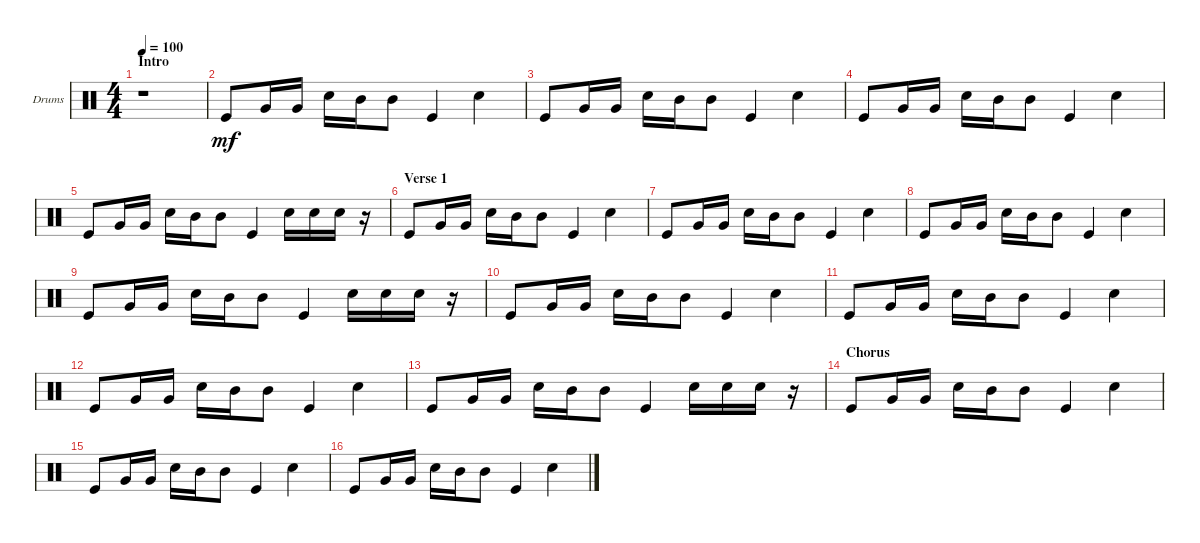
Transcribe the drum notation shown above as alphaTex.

\defaultSystemsLayout 4
\bracketExtendMode groupsimilarinstruments
\firstSystemTrackNameOrientation horizontal
\otherSystemsTrackNameOrientation horizontal
\track ("Dominic Howard" "Drums") {instrument percussion}
\staff {score}
\articulation defaults
\ts (4 4)
\section ("" "Intro")
\tempo 100
\clef neutral
\ks c
r.1{dy mf} |
"Kick (hit)".8 "Very Low Tom (hit)".16 "Very Low Tom (hit)".16 "Snare (hit) 2".16 "Mid Tom (hit)".16 "Mid Tom (hit)".8 "Kick (hit)".4 "Snare (hit) 2".4 |
"Kick (hit)".8 "Very Low Tom (hit)".16 "Very Low Tom (hit)".16 "Snare (hit) 2".16 "Mid Tom (hit)".16 "Mid Tom (hit)".8 "Kick (hit)".4 "Snare (hit) 2".4 |
"Kick (hit)".8 "Very Low Tom (hit)".16 "Very Low Tom (hit)".16 "Snare (hit) 2".16 "Mid Tom (hit)".16 "Mid Tom (hit)".8 "Kick (hit)".4 "Snare (hit) 2".4 |
"Kick (hit)".8 "Very Low Tom (hit)".16 "Very Low Tom (hit)".16 "Snare (hit) 2".16 "Mid Tom (hit)".16 "Mid Tom (hit)".8 "Kick (hit)".4 "Snare (hit) 2".16 "Snare (hit) 2".16 "Snare (hit) 2".16 r.16 |
\section ("" "Verse 1")
"Kick (hit)".8 "Very Low Tom (hit)".16 "Very Low Tom (hit)".16 "Snare (hit) 2".16 "Mid Tom (hit)".16 "Mid Tom (hit)".8 "Kick (hit)".4 "Snare (hit) 2".4 |
"Kick (hit)".8 "Very Low Tom (hit)".16 "Very Low Tom (hit)".16 "Snare (hit) 2".16 "Mid Tom (hit)".16 "Mid Tom (hit)".8 "Kick (hit)".4 "Snare (hit) 2".4 |
"Kick (hit)".8 "Very Low Tom (hit)".16 "Very Low Tom (hit)".16 "Snare (hit) 2".16 "Mid Tom (hit)".16 "Mid Tom (hit)".8 "Kick (hit)".4 "Snare (hit) 2".4 |
"Kick (hit)".8 "Very Low Tom (hit)".16 "Very Low Tom (hit)".16 "Snare (hit) 2".16 "Mid Tom (hit)".16 "Mid Tom (hit)".8 "Kick (hit)".4 "Snare (hit) 2".16 "Snare (hit) 2".16 "Snare (hit) 2".16 r.16 |
"Kick (hit)".8 "Very Low Tom (hit)".16 "Very Low Tom (hit)".16 "Snare (hit) 2".16 "Mid Tom (hit)".16 "Mid Tom (hit)".8 "Kick (hit)".4 "Snare (hit) 2".4 |
"Kick (hit)".8 "Very Low Tom (hit)".16 "Very Low Tom (hit)".16 "Snare (hit) 2".16 "Mid Tom (hit)".16 "Mid Tom (hit)".8 "Kick (hit)".4 "Snare (hit) 2".4 |
"Kick (hit)".8 "Very Low Tom (hit)".16 "Very Low Tom (hit)".16 "Snare (hit) 2".16 "Mid Tom (hit)".16 "Mid Tom (hit)".8 "Kick (hit)".4 "Snare (hit) 2".4 |
"Kick (hit)".8 "Very Low Tom (hit)".16 "Very Low Tom (hit)".16 "Snare (hit) 2".16 "Mid Tom (hit)".16 "Mid Tom (hit)".8 "Kick (hit)".4 "Snare (hit) 2".16 "Snare (hit) 2".16 "Snare (hit) 2".16 r.16 |
\section ("" "Chorus")
"Kick (hit)".8 "Very Low Tom (hit)".16 "Very Low Tom (hit)".16 "Snare (hit) 2".16 "Mid Tom (hit)".16 "Mid Tom (hit)".8 "Kick (hit)".4 "Snare (hit) 2".4 |
"Kick (hit)".8 "Very Low Tom (hit)".16 "Very Low Tom (hit)".16 "Snare (hit) 2".16 "Mid Tom (hit)".16 "Mid Tom (hit)".8 "Kick (hit)".4 "Snare (hit) 2".4 |
"Kick (hit)".8 "Very Low Tom (hit)".16 "Very Low Tom (hit)".16 "Snare (hit) 2".16 "Mid Tom (hit)".16 "Mid Tom (hit)".8 "Kick (hit)".4 "Snare (hit) 2".4
